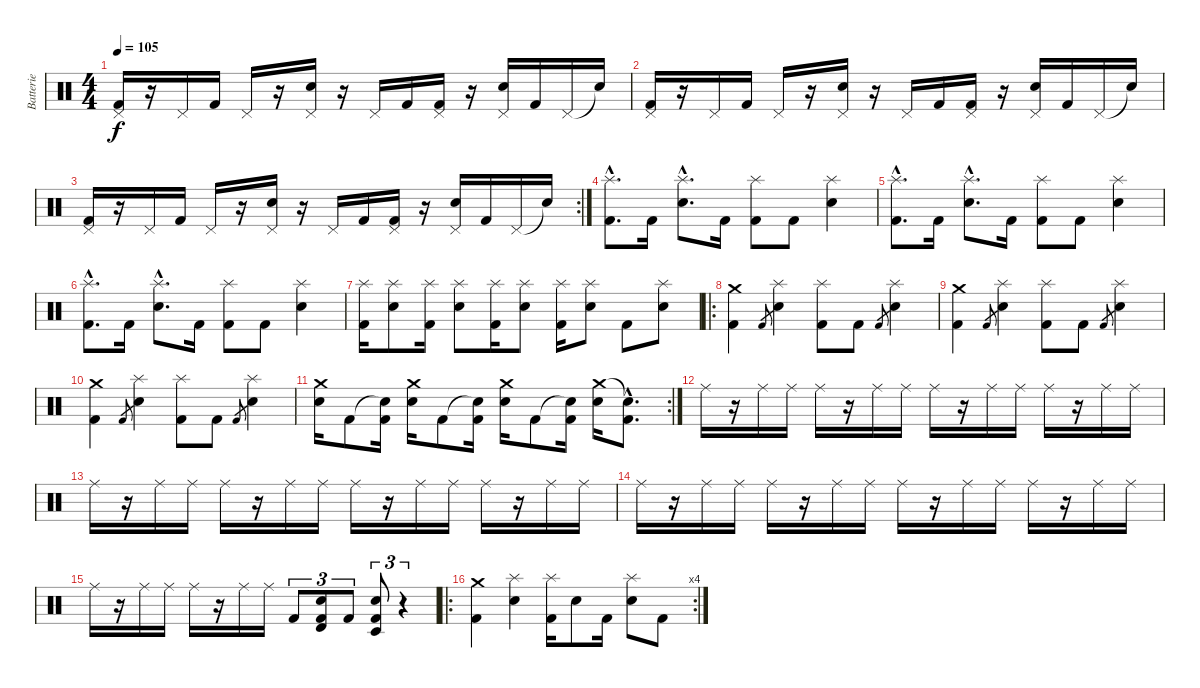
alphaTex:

\track ("Batterie" "Batterie") {instrument percussion}
\staff {score}
\articulation defaults
\ts (4 4)
\tempo 105
\clef neutral
\ks c
("Pedal Hi-Hat (hit)" "Kick (hit) 2").16{dy f} r.16 "Pedal Hi-Hat (hit)".16 "Kick (hit) 2".16 "Pedal Hi-Hat (hit)".16 r.16 ("Pedal Hi-Hat (hit)" "Electric Snare (hit)").16 r.16 "Pedal Hi-Hat (hit)".16 "Kick (hit) 2".16 ("Pedal Hi-Hat (hit)" "Kick (hit) 2").16 r.16 ("Pedal Hi-Hat (hit)" "Electric Snare (hit)").16 "Kick (hit) 2".16 "Pedal Hi-Hat (hit)"{tr (44 64)}.16 "Snare (hit)"{t}.16 |
("Pedal Hi-Hat (hit)" "Kick (hit) 2").16 r.16 "Pedal Hi-Hat (hit)".16 "Kick (hit) 2".16 "Pedal Hi-Hat (hit)".16 r.16 ("Pedal Hi-Hat (hit)" "Electric Snare (hit)").16 r.16 "Pedal Hi-Hat (hit)".16 "Kick (hit) 2".16 ("Pedal Hi-Hat (hit)" "Kick (hit) 2").16 r.16 ("Pedal Hi-Hat (hit)" "Electric Snare (hit)").16 "Kick (hit) 2".16 "Pedal Hi-Hat (hit)"{tr (44 64)}.16 "Snare (hit)"{t}.16 |
\rc 2
("Pedal Hi-Hat (hit)" "Kick (hit) 2").16 r.16 "Pedal Hi-Hat (hit)".16 "Kick (hit) 2".16 "Pedal Hi-Hat (hit)".16 r.16 ("Pedal Hi-Hat (hit)" "Electric Snare (hit)").16 r.16 "Pedal Hi-Hat (hit)".16 "Kick (hit) 2".16 ("Pedal Hi-Hat (hit)" "Kick (hit) 2").16 r.16 ("Pedal Hi-Hat (hit)" "Electric Snare (hit)").16 "Kick (hit) 2".16 "Pedal Hi-Hat (hit)"{tr (44 64)}.16 "Snare (hit)"{t}.16 |
("Splash (hit)"{hac} "Kick (hit) 2"{hac}).8{d} "Kick (hit) 2".16 ("Splash (hit)"{hac} "Electric Snare (hit)"{hac}).8{d} "Kick (hit) 2".16 ("Splash (hit)" "Kick (hit) 2").8 "Kick (hit) 2".8 ("Splash (hit)" "Electric Snare (hit)").4 |
("Splash (hit)"{hac} "Kick (hit) 2"{hac}).8{d} "Kick (hit) 2".16 ("Splash (hit)"{hac} "Electric Snare (hit)"{hac}).8{d} "Kick (hit) 2".16 ("Splash (hit)" "Kick (hit) 2").8 "Kick (hit) 2".8 ("Splash (hit)" "Electric Snare (hit)").4 |
("Splash (hit)"{hac} "Kick (hit) 2"{hac}).8{d} "Kick (hit) 2".16 ("Splash (hit)"{hac} "Electric Snare (hit)"{hac}).8{d} "Kick (hit) 2".16 ("Splash (hit)" "Kick (hit) 2").8 "Kick (hit) 2".8 ("Splash (hit)" "Electric Snare (hit)").4 |
("Splash (hit)" "Kick (hit) 2").16 ("Splash (hit)" "Electric Snare (hit)").8 ("Splash (hit)" "Kick (hit) 2").16 ("Splash (hit)" "Electric Snare (hit)").8 ("Splash (hit)" "Kick (hit) 2").16 ("Splash (hit)" "Electric Snare (hit)").8 ("Splash (hit)" "Kick (hit) 2").16 ("Splash (hit)" "Electric Snare (hit)").8 "Kick (hit) 2"{tr (36 32)}.8 ("Splash (hit)" "Electric Snare (hit)").8 |
\ro
("Crash medium (hit)" "Kick (hit) 2").4 "Kick (hit) 2".8{gr} ("Splash (hit)" "Electric Snare (hit)").4 ("Splash (hit)" "Kick (hit) 2").8 "Kick (hit) 2".8 "Kick (hit) 2".8{gr} ("Splash (hit)" "Electric Snare (hit)").4 |
("Crash medium (hit)" "Kick (hit) 2").4 "Kick (hit) 2".8{gr} ("Splash (hit)" "Electric Snare (hit)").4 ("Splash (hit)" "Kick (hit) 2").8 "Kick (hit) 2".8 "Kick (hit) 2".8{gr} ("Splash (hit)" "Electric Snare (hit)").4 |
("Crash medium (hit)" "Kick (hit) 2").4 "Kick (hit) 2".8{gr} ("Splash (hit)" "Electric Snare (hit)").4 ("Splash (hit)" "Kick (hit) 2").8 "Kick (hit) 2".8 "Kick (hit) 2".8{gr} ("Splash (hit)" "Electric Snare (hit)").4 |
\rc 2
("Crash medium (hit)" "Electric Snare (hit)").16 "Kick (hit) 2".8 ("Snare (hit)"{t} "Kick (hit) 2").16 ("Crash medium (hit)" "Electric Snare (hit)").16 "Kick (hit) 2".8 ("Snare (hit)"{t} "Kick (hit) 2").16 ("Crash medium (hit)" "Electric Snare (hit)").16 "Kick (hit) 2".8 ("Snare (hit)"{t} "Kick (hit) 2").16 ("Crash medium (hit)" "Electric Snare (hit)").16 ("Snare (hit)"{hac t} "Kick (hit) 2"{hac}).8{d} |
"Ride (middle)".16 r.16 "Ride (middle)".16 "Ride (middle)".16 "Ride (middle)".16 r.16 "Ride (middle)".16 "Ride (middle)".16 "Ride (middle)".16 r.16 "Ride (middle)".16 "Ride (middle)".16 "Ride (middle)".16 r.16 "Ride (middle)".16 "Ride (middle)".16 |
"Ride (middle)".16 r.16 "Ride (middle)".16 "Ride (middle)".16 "Ride (middle)".16 r.16 "Ride (middle)".16 "Ride (middle)".16 "Ride (middle)".16 r.16 "Ride (middle)".16 "Ride (middle)".16 "Ride (middle)".16 r.16 "Ride (middle)".16 "Ride (middle)".16 |
"Ride (middle)".16 r.16 "Ride (middle)".16 "Ride (middle)".16 "Ride (middle)".16 r.16 "Ride (middle)".16 "Ride (middle)".16 "Ride (middle)".16 r.16 "Ride (middle)".16 "Ride (middle)".16 "Ride (middle)".16 r.16 "Ride (middle)".16 "Ride (middle)".16 |
"Ride (middle)".16 r.16 "Ride (middle)".16 "Ride (middle)".16 "Ride (middle)".16 r.16 "Ride (middle)".16 "Ride (middle)".16 "Kick (hit) 2".8{tu (3 2)} ("Timbale high (hit)" "Electric Snare (hit)" "Kick (hit) 2").8{tu (3 2)} "Kick (hit) 2".8{tu (3 2)} ("Timbale low (hit)" "Electric Snare (hit)" "Kick (hit) 2").8{tu (3 2)} r.4{tu (3 2)} |
\ro
\rc 4
("Crash medium (hit)" "Kick (hit) 2").4 ("Splash (hit)" "Electric Snare (hit)").4 ("Splash (hit)" "Kick (hit) 2").16 "Electric Snare (hit)".8 "Kick (hit) 2".16 ("Splash (hit)" "Electric Snare (hit)").8 "Kick (hit) 2"{tr (36 32)}.8
